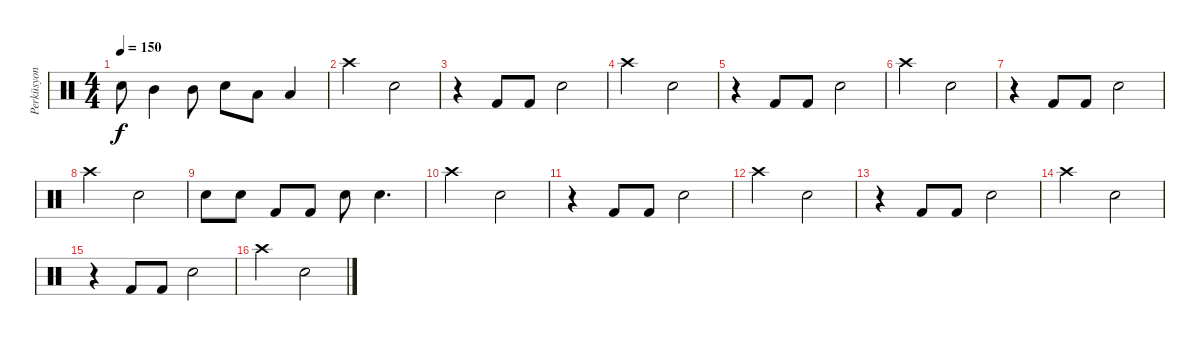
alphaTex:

\track ("Perküsyon" "Perküsyon") {instrument percussion}
\staff {score}
\articulation defaults
\ts (4 4)
\tempo 150
\clef neutral
\ks c "Snare (hit) 2".8{dy f} "Mid Tom (hit)".4 "Mid Tom (hit)".8 "Snare (hit) 2".8 "Low Tom (hit)".8 "Low Tom (hit)".4
|
"Crash high (hit)".2 "Snare (hit) 2".2 |
r.4 "Kick (hit) 2".8 "Kick (hit) 2".8 "Snare (hit) 2".2 |
"Crash high (hit)".2 "Snare (hit) 2".2 |
r.4 "Kick (hit) 2".8 "Kick (hit) 2".8 "Snare (hit) 2".2 |
"Crash high (hit)".2 "Snare (hit) 2".2 |
r.4 "Kick (hit) 2".8 "Kick (hit) 2".8 "Snare (hit) 2".2 |
"Crash high (hit)".2 "Snare (hit) 2".2 |
"Snare (hit) 2".8 "Snare (hit) 2".8 "Kick (hit) 2".8 "Kick (hit) 2".8 "Snare (hit) 2".8 "Snare (hit) 2".4{d} |
"Crash high (hit)".2 "Snare (hit) 2".2 |
r.4 "Kick (hit) 2".8 "Kick (hit) 2".8 "Snare (hit) 2".2 |
"Crash high (hit)".2 "Snare (hit) 2".2 |
r.4 "Kick (hit) 2".8 "Kick (hit) 2".8 "Snare (hit) 2".2 |
"Crash high (hit)".2 "Snare (hit) 2".2 |
r.4 "Kick (hit) 2".8 "Kick (hit) 2".8 "Snare (hit) 2".2 |
"Crash high (hit)".2 "Snare (hit) 2".2
